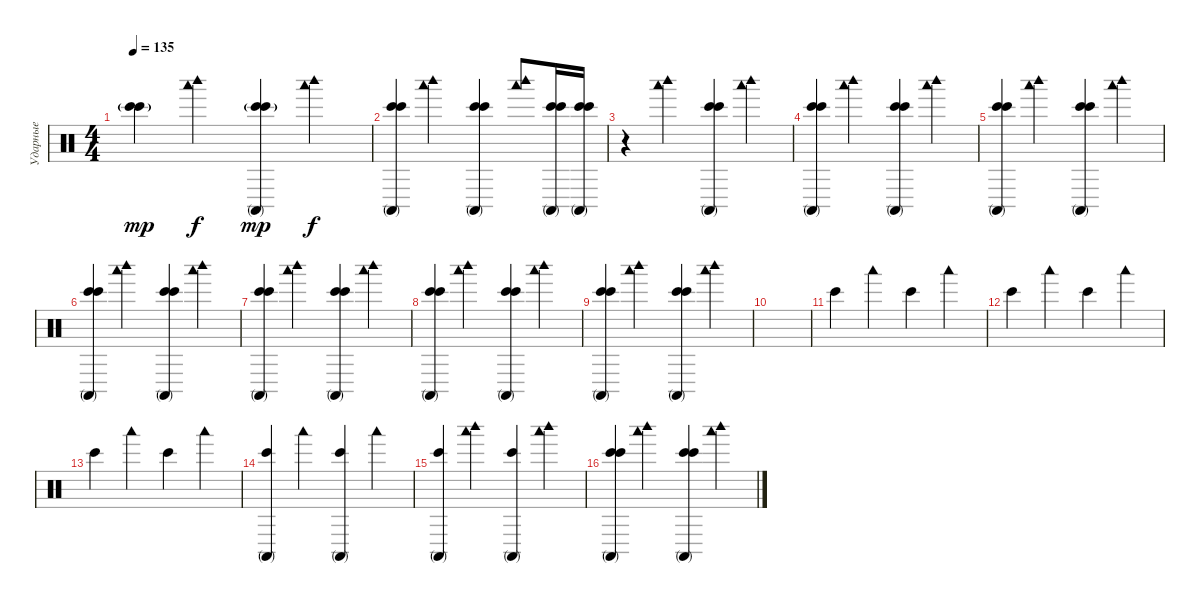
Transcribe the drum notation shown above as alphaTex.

\track ("Ударные" "Ударные") {instrument percussion}
\staff {score}
\articulation defaults
\ts (4 4)
\tempo 135
\clef neutral
\ks c
("Bongo High (hit)" "Bongo High (hit)"{g}).4{dy mp} ("Woodblock low (hit)" "Woodblock high (hit)").4{dy f} ("Bongo High (hit)" "Bongo High (hit)"{g} "Conga high (mute)").4{dy mp} ("Woodblock low (hit)" "Woodblock high (hit)").4{dy f} |
("Bongo High (hit)" "Bongo High (hit)" "Conga high (mute)").4 ("Woodblock low (hit)" "Woodblock high (hit)").4 ("Bongo High (hit)" "Bongo High (hit)" "Conga high (mute)").4 ("Woodblock low (hit)" "Woodblock high (hit)").8 ("Bongo High (hit)" "Bongo High (hit)" "Conga high (mute)").16 ("Bongo High (hit)" "Bongo High (hit)" "Conga high (mute)").16 |
r.4 ("Woodblock low (hit)" "Woodblock high (hit)").4 ("Bongo High (hit)" "Bongo High (hit)" "Conga high (mute)").4 ("Woodblock low (hit)" "Woodblock high (hit)").4 |
("Bongo High (hit)" "Bongo High (hit)" "Conga high (mute)").4 ("Woodblock low (hit)" "Woodblock high (hit)").4 ("Bongo High (hit)" "Bongo High (hit)" "Conga high (mute)").4 ("Woodblock low (hit)" "Woodblock high (hit)").4 |
("Bongo High (hit)" "Bongo High (hit)" "Conga high (mute)").4 ("Woodblock low (hit)" "Woodblock high (hit)").4 ("Bongo High (hit)" "Bongo High (hit)" "Conga high (mute)").4 ("Woodblock low (hit)" "Woodblock high (hit)").4 |
("Bongo High (hit)" "Bongo High (hit)" "Conga high (mute)").4 ("Woodblock low (hit)" "Woodblock high (hit)").4 ("Bongo High (hit)" "Bongo High (hit)" "Conga high (mute)").4 ("Woodblock low (hit)" "Woodblock high (hit)").4 |
("Bongo High (hit)" "Bongo High (hit)" "Conga high (mute)").4 ("Woodblock low (hit)" "Woodblock high (hit)").4 ("Bongo High (hit)" "Bongo High (hit)" "Conga high (mute)").4 ("Woodblock low (hit)" "Woodblock high (hit)").4 |
("Bongo High (hit)" "Bongo High (hit)" "Conga high (mute)").4 ("Woodblock low (hit)" "Woodblock high (hit)").4 ("Bongo High (hit)" "Bongo High (hit)" "Conga high (mute)").4 ("Woodblock low (hit)" "Woodblock high (hit)").4 |
("Bongo High (hit)" "Bongo High (hit)" "Conga high (mute)").4 ("Woodblock low (hit)" "Woodblock high (hit)").4 ("Bongo High (hit)" "Bongo High (hit)" "Conga high (mute)").4 ("Woodblock low (hit)" "Woodblock high (hit)").4 |
|
"Bongo High (hit)".4 "Woodblock low (hit)".4 "Bongo High (hit)".4 "Woodblock low (hit)".4 |
"Bongo High (hit)".4 "Woodblock low (hit)".4 "Bongo High (hit)".4 "Woodblock low (hit)".4 |
"Bongo High (hit)".4 "Woodblock low (hit)".4 "Bongo High (hit)".4 "Woodblock low (hit)".4 |
("Bongo High (hit)" "Conga high (mute)").4 "Woodblock low (hit)".4 ("Bongo High (hit)" "Conga high (mute)").4 "Woodblock low (hit)".4 |
("Bongo High (hit)" "Conga high (mute)").4 ("Woodblock low (hit)" "Woodblock high (hit)").4 ("Bongo High (hit)" "Conga high (mute)").4 ("Woodblock low (hit)" "Woodblock high (hit)").4 |
("Bongo High (hit)" "Bongo High (hit)" "Conga high (mute)").4 ("Woodblock low (hit)" "Woodblock high (hit)").4 ("Bongo High (hit)" "Bongo High (hit)" "Conga high (mute)").4 ("Woodblock low (hit)" "Woodblock high (hit)").4
